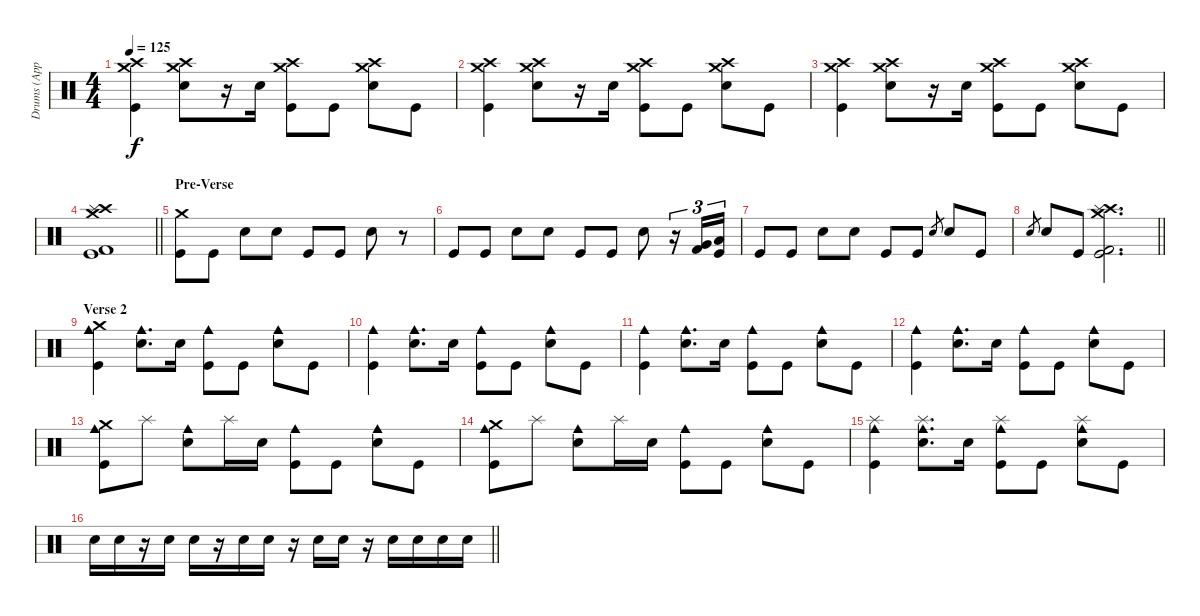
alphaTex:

\track ("Drums (Approx.)" "Drums (App") {instrument percussion}
\staff {score}
\articulation defaults
\ts (4 4)
\tempo 125
\clef neutral
\ks c
("Crash medium (hit)" "Crash high (hit)" "Kick (hit)").4{dy f} ("Crash medium (hit)" "Crash high (hit)" "Electric Snare (hit)").8 r.16 "Electric Snare (hit)".16 ("Crash medium (hit)" "Crash high (hit)" "Kick (hit)").8 "Kick (hit)".8 ("Crash medium (hit)" "Crash high (hit)" "Electric Snare (hit)").8 "Kick (hit)".8 |
("Crash medium (hit)" "Crash high (hit)" "Kick (hit)").4 ("Crash medium (hit)" "Crash high (hit)" "Electric Snare (hit)").8 r.16 "Electric Snare (hit)".16 ("Crash medium (hit)" "Crash high (hit)" "Kick (hit)").8 "Kick (hit)".8 ("Crash medium (hit)" "Crash high (hit)" "Electric Snare (hit)").8 "Kick (hit)".8 |
("Crash medium (hit)" "Crash high (hit)" "Kick (hit)").4 ("Crash medium (hit)" "Crash high (hit)" "Electric Snare (hit)").8 r.16 "Electric Snare (hit)".16 ("Crash medium (hit)" "Crash high (hit)" "Kick (hit)").8 "Kick (hit)".8 ("Crash medium (hit)" "Crash high (hit)" "Electric Snare (hit)").8 "Kick (hit)".8 |
\barLineRight lightlight
("Crash medium (hit)" "Crash high (hit)" "Splash (hit)" "Kick (hit) 2" "Kick (hit)").1 |
\section ("" "Pre-Verse")
("Crash medium (hit)" "Kick (hit)").8 "Kick (hit)".8 "Electric Snare (hit)".8 "Electric Snare (hit)".8 "Kick (hit)".8 "Kick (hit)".8 "Electric Snare (hit)".8 r.8 |
"Kick (hit)".8 "Kick (hit)".8 "Electric Snare (hit)".8 "Electric Snare (hit)".8 "Kick (hit)".8 "Kick (hit)".8 "Electric Snare (hit)".8 r.16{tu (3 2)} ("Kick (hit) 2" "Very Low Tom (hit)").16{tu (3 2)} ("Kick (hit)" "Low Floor Tom (hit)").16{tu (3 2)} |
"Kick (hit)".8 "Kick (hit)".8 "Electric Snare (hit)".8 "Electric Snare (hit)".8 "Kick (hit)".8 "Kick (hit)".8 "Electric Snare (hit)".8{gr} "Electric Snare (hit)".8 "Kick (hit)".8 |
\barLineRight lightlight "Electric Snare (hit)".8{gr} "Electric Snare (hit)".8 "Kick (hit)".8
("Crash medium (hit)" "Crash high (hit)" "Splash (hit)" "Kick (hit) 2" "Kick (hit)").2{d} |
\section ("" "Verse 2")
("Crash medium (hit)" "Cowbell medium (hit)" "Kick (hit)").4 ("Cowbell medium (hit)" "Electric Snare (hit)").8{d} "Electric Snare (hit)".16 ("Cowbell medium (hit)" "Kick (hit)").8 "Kick (hit)".8 ("Cowbell medium (hit)" "Electric Snare (hit)").8 "Kick (hit)".8 |
("Cowbell medium (hit)" "Kick (hit)").4 ("Cowbell medium (hit)" "Electric Snare (hit)").8{d} "Electric Snare (hit)".16 ("Cowbell medium (hit)" "Kick (hit)").8 "Kick (hit)".8 ("Cowbell medium (hit)" "Electric Snare (hit)").8 "Kick (hit)".8 |
("Cowbell medium (hit)" "Kick (hit)").4 ("Cowbell medium (hit)" "Electric Snare (hit)").8{d} "Electric Snare (hit)".16 ("Cowbell medium (hit)" "Kick (hit)").8 "Kick (hit)".8 ("Cowbell medium (hit)" "Electric Snare (hit)").8 "Kick (hit)".8 |
("Cowbell medium (hit)" "Kick (hit)").4 ("Cowbell medium (hit)" "Electric Snare (hit)").8{d} "Electric Snare (hit)".16 ("Cowbell medium (hit)" "Kick (hit)").8 "Kick (hit)".8 ("Cowbell medium (hit)" "Electric Snare (hit)").8 "Kick (hit)".8 |
("Crash medium (hit)" "Cowbell medium (hit)" "Kick (hit)").8 "Splash (hit)".8 ("Cowbell medium (hit)" "Electric Snare (hit)").8 "Splash (hit)".16 "Electric Snare (hit)".16 ("Cowbell medium (hit)" "Kick (hit)").8 "Kick (hit)".8 ("Cowbell medium (hit)" "Electric Snare (hit)").8 "Kick (hit)".8 |
("Crash medium (hit)" "Cowbell medium (hit)" "Kick (hit)").8 "Splash (hit)".8 ("Cowbell medium (hit)" "Electric Snare (hit)").8 "Splash (hit)".16 "Electric Snare (hit)".16 ("Cowbell medium (hit)" "Kick (hit)").8 "Kick (hit)".8 ("Cowbell medium (hit)" "Electric Snare (hit)").8 "Kick (hit)".8 |
("Splash (hit)" "Cowbell medium (hit)" "Kick (hit)").4 ("Splash (hit)" "Cowbell medium (hit)" "Electric Snare (hit)").8{d} "Electric Snare (hit)".16 ("Splash (hit)" "Cowbell medium (hit)" "Kick (hit)").8 "Kick (hit)".8 ("Splash (hit)" "Cowbell medium (hit)" "Electric Snare (hit)").8 "Kick (hit)".8 |
\barLineRight lightlight "Electric Snare (hit)".16 "Electric Snare (hit)".16
r.16 "Electric Snare (hit)".16 "Electric Snare (hit)".16 r.16 "Electric Snare (hit)".16 "Electric Snare (hit)".16 r.16 "Electric Snare (hit)".16 "Electric Snare (hit)".16 r.16 "Electric Snare (hit)".16 "Electric Snare (hit)".16 "Electric Snare (hit)".16 "Electric Snare (hit)".16
